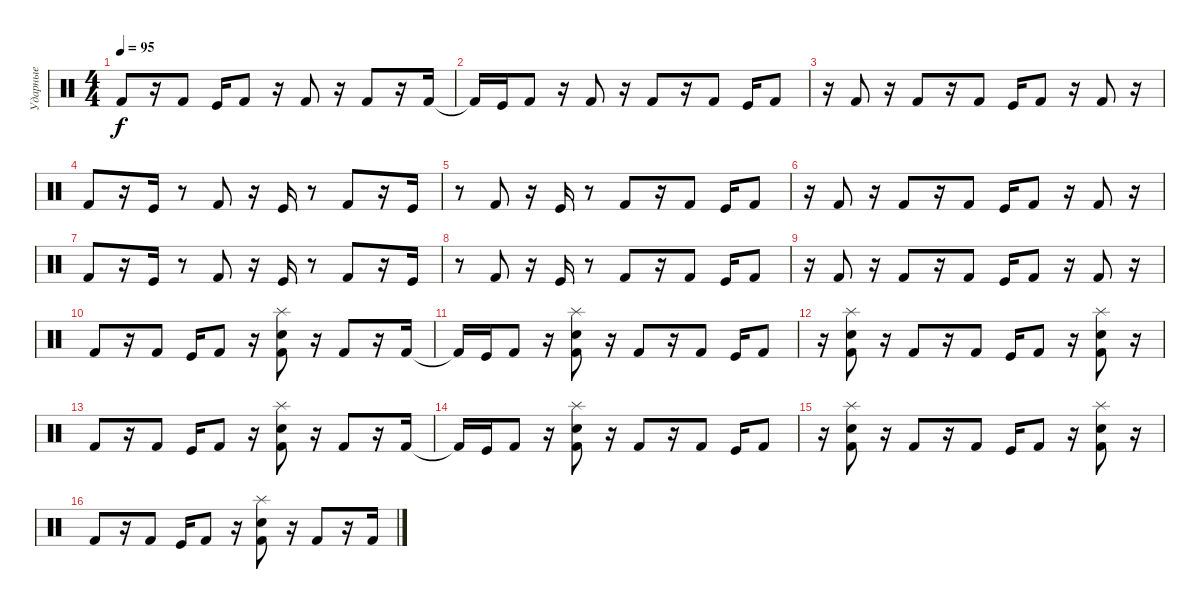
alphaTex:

\track ("Ударные" "Ударные") {instrument percussion}
\staff {score}
\articulation defaults
\ts (4 4)
\tempo 95
\clef neutral
\ks c "Kick (hit) 2".8{dy f}
r.16 "Kick (hit) 2".8 "Kick (hit)".16 "Kick (hit) 2".8 r.16 "Kick (hit) 2".8 r.16 "Kick (hit) 2".8 r.16 "Kick (hit) 2".16 |
"Kick (hit) 2"{t}.16 "Kick (hit)".16 "Kick (hit) 2".8 r.16 "Kick (hit) 2".8 r.16 "Kick (hit) 2".8 r.16 "Kick (hit) 2".8 "Kick (hit)".16 "Kick (hit) 2".8 |
r.16 "Kick (hit) 2".8 r.16 "Kick (hit) 2".8 r.16 "Kick (hit) 2".8 "Kick (hit)".16 "Kick (hit) 2".8 r.16 "Kick (hit) 2".8 r.16 |
"Kick (hit) 2".8 r.16 "Kick (hit)".16 r.8 "Kick (hit) 2".8 r.16 "Kick (hit)".16 r.8 "Kick (hit) 2".8 r.16 "Kick (hit)".16 |
r.8 "Kick (hit) 2".8 r.16 "Kick (hit)".16 r.8 "Kick (hit) 2".8 r.16 "Kick (hit) 2".8 "Kick (hit)".16 "Kick (hit) 2".8 |
r.16 "Kick (hit) 2".8 r.16 "Kick (hit) 2".8 r.16 "Kick (hit) 2".8 "Kick (hit)".16 "Kick (hit) 2".8 r.16 "Kick (hit) 2".8 r.16 |
"Kick (hit) 2".8 r.16 "Kick (hit)".16 r.8 "Kick (hit) 2".8 r.16 "Kick (hit)".16 r.8 "Kick (hit) 2".8 r.16 "Kick (hit)".16 |
r.8 "Kick (hit) 2".8 r.16 "Kick (hit)".16 r.8 "Kick (hit) 2".8 r.16 "Kick (hit) 2".8 "Kick (hit)".16 "Kick (hit) 2".8 |
r.16 "Kick (hit) 2".8 r.16 "Kick (hit) 2".8 r.16 "Kick (hit) 2".8 "Kick (hit)".16 "Kick (hit) 2".8 r.16 "Kick (hit) 2".8 r.16 |
"Kick (hit) 2".8 r.16 "Kick (hit) 2".8 "Kick (hit)".16 "Kick (hit) 2".8 r.16 ("Kick (hit) 2" "Hand Clap (hit)" "Splash (hit)").8 r.16 "Kick (hit) 2".8 r.16 "Kick (hit) 2".16 |
"Kick (hit) 2"{t}.16 "Kick (hit)".16 "Kick (hit) 2".8 r.16 ("Kick (hit) 2" "Hand Clap (hit)" "Splash (hit)").8 r.16 "Kick (hit) 2".8 r.16 "Kick (hit) 2".8 "Kick (hit)".16 "Kick (hit) 2".8 |
r.16 ("Kick (hit) 2" "Hand Clap (hit)" "Splash (hit)").8 r.16 "Kick (hit) 2".8 r.16 "Kick (hit) 2".8 "Kick (hit)".16 "Kick (hit) 2".8 r.16 ("Kick (hit) 2" "Hand Clap (hit)" "Splash (hit)").8 r.16 |
"Kick (hit) 2".8 r.16 "Kick (hit) 2".8 "Kick (hit)".16 "Kick (hit) 2".8 r.16 ("Kick (hit) 2" "Hand Clap (hit)" "Splash (hit)").8 r.16 "Kick (hit) 2".8 r.16 "Kick (hit) 2".16 |
"Kick (hit) 2"{t}.16 "Kick (hit)".16 "Kick (hit) 2".8 r.16 ("Kick (hit) 2" "Hand Clap (hit)" "Splash (hit)").8 r.16 "Kick (hit) 2".8 r.16 "Kick (hit) 2".8 "Kick (hit)".16 "Kick (hit) 2".8 |
r.16 ("Kick (hit) 2" "Hand Clap (hit)" "Splash (hit)").8 r.16 "Kick (hit) 2".8 r.16 "Kick (hit) 2".8 "Kick (hit)".16 "Kick (hit) 2".8 r.16 ("Kick (hit) 2" "Hand Clap (hit)" "Splash (hit)").8 r.16 |
"Kick (hit) 2".8 r.16 "Kick (hit) 2".8 "Kick (hit)".16 "Kick (hit) 2".8 r.16 ("Kick (hit) 2" "Hand Clap (hit)" "Splash (hit)").8 r.16 "Kick (hit) 2".8 r.16 "Kick (hit) 2".16
